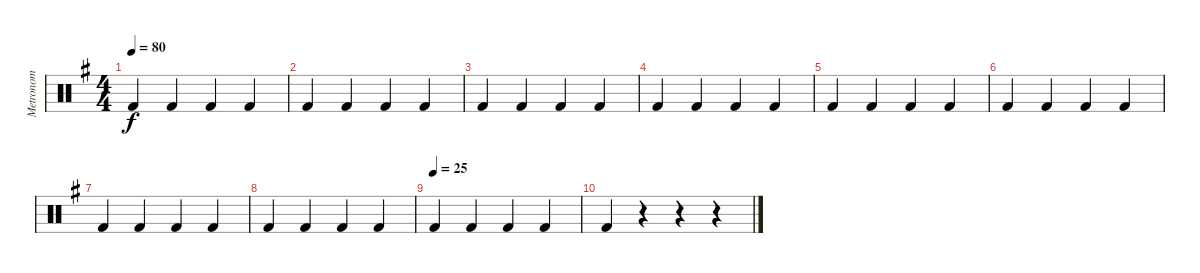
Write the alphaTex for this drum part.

\track ("Metronom" "Metronom") {instrument percussion}
\staff {score}
\articulation defaults
\ts (4 4)
\tempo 80
\clef neutral
\ks g "Kick (hit) 2".4{dy f} "Kick (hit) 2".4 "Kick (hit) 2".4 "Kick (hit) 2".4
|
"Kick (hit) 2".4 "Kick (hit) 2".4 "Kick (hit) 2".4 "Kick (hit) 2".4 |
"Kick (hit) 2".4 "Kick (hit) 2".4 "Kick (hit) 2".4 "Kick (hit) 2".4 |
"Kick (hit) 2".4 "Kick (hit) 2".4 "Kick (hit) 2".4 "Kick (hit) 2".4 |
"Kick (hit) 2".4 "Kick (hit) 2".4 "Kick (hit) 2".4 "Kick (hit) 2".4 |
"Kick (hit) 2".4 "Kick (hit) 2".4 "Kick (hit) 2".4 "Kick (hit) 2".4 |
"Kick (hit) 2".4 "Kick (hit) 2".4 "Kick (hit) 2".4 "Kick (hit) 2".4 |
"Kick (hit) 2".4 "Kick (hit) 2".4 "Kick (hit) 2".4 "Kick (hit) 2".4 |
\tempo (25)
"Kick (hit) 2".4 "Kick (hit) 2".4 "Kick (hit) 2".4 "Kick (hit) 2".4 |
"Kick (hit) 2".4 r.4 r.4 r.4
